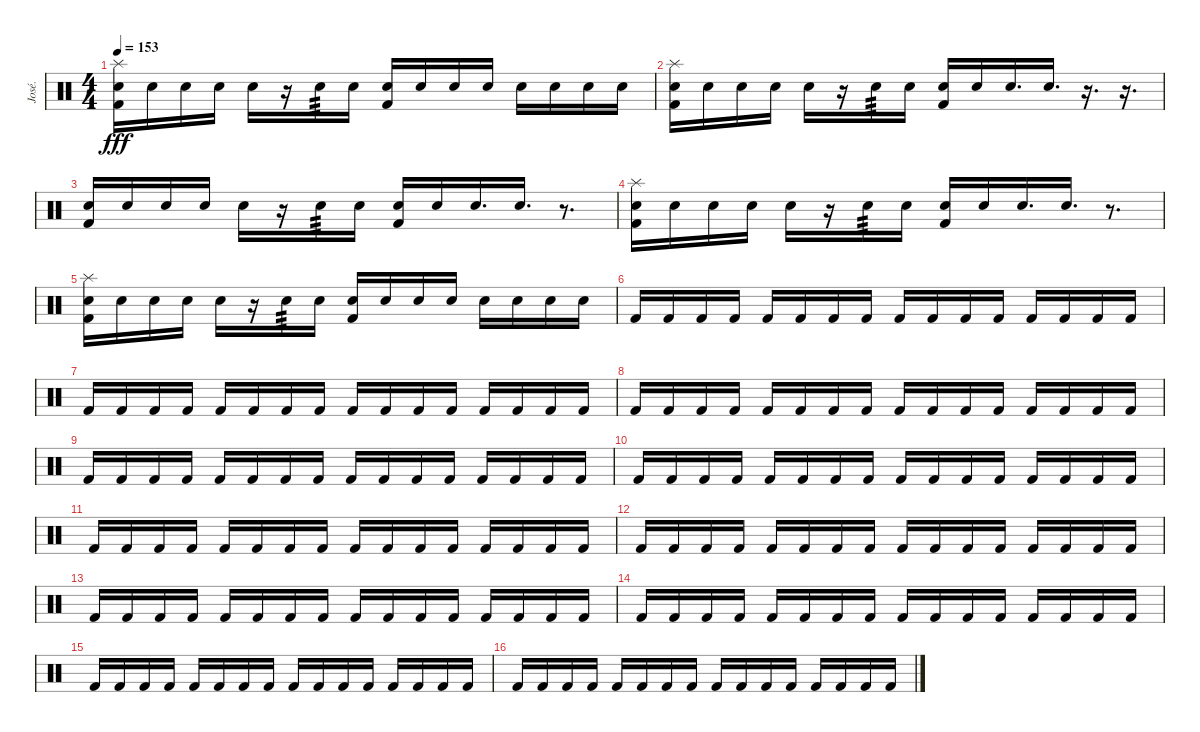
\track ("José." "José.") {instrument percussion}
\staff {score}
\articulation defaults
\ts (4 4)
\tempo 153
\clef neutral
\ks c
("Kick (hit) 2" "Snare (hit) 2" "Splash (hit)").16{dy fff} "Snare (hit) 2".16 "Snare (hit) 2".16 "Snare (hit) 2".16 "Snare (hit) 2".16 r.16 "Snare (hit) 2".16{tp 3} "Snare (hit) 2".16 ("Kick (hit) 2" "Snare (hit) 2").16 "Snare (hit) 2".16 "Snare (hit) 2".16 "Snare (hit) 2".16 "Snare (hit) 2".16 "Snare (hit) 2".16 "Snare (hit) 2".16 "Snare (hit) 2".16 |
("Kick (hit) 2" "Snare (hit) 2" "Splash (hit)").16 "Snare (hit) 2".16 "Snare (hit) 2".16 "Snare (hit) 2".16 "Snare (hit) 2".16 r.16 "Snare (hit) 2".16{tp 3} "Snare (hit) 2".16 ("Kick (hit) 2" "Snare (hit) 2").16 "Snare (hit) 2".16 "Snare (hit) 2".16{d} "Snare (hit) 2".16{d} r.16{d} r.16{d} |
("Kick (hit) 2" "Snare (hit) 2").16 "Snare (hit) 2".16 "Snare (hit) 2".16 "Snare (hit) 2".16 "Snare (hit) 2".16 r.16 "Snare (hit) 2".16{tp 3} "Snare (hit) 2".16 ("Kick (hit) 2" "Snare (hit) 2").16 "Snare (hit) 2".16 "Snare (hit) 2".16{d} "Snare (hit) 2".16{d} r.8{d} |
("Kick (hit) 2" "Snare (hit) 2" "Splash (hit)").16 "Snare (hit) 2".16 "Snare (hit) 2".16 "Snare (hit) 2".16 "Snare (hit) 2".16 r.16 "Snare (hit) 2".16{tp 3} "Snare (hit) 2".16 ("Kick (hit) 2" "Snare (hit) 2").16 "Snare (hit) 2".16 "Snare (hit) 2".16{d} "Snare (hit) 2".16{d} r.8{d} |
("Kick (hit) 2" "Snare (hit) 2" "Splash (hit)").16 "Snare (hit) 2".16 "Snare (hit) 2".16 "Snare (hit) 2".16 "Snare (hit) 2".16 r.16 "Snare (hit) 2".16{tp 3} "Snare (hit) 2".16 ("Kick (hit) 2" "Snare (hit) 2").16 "Snare (hit) 2".16 "Snare (hit) 2".16 "Snare (hit) 2".16 "Snare (hit) 2".16 "Snare (hit) 2".16 "Snare (hit) 2".16 "Snare (hit) 2".16 |
"Kick (hit) 2".16 "Kick (hit) 2".16 "Kick (hit) 2".16 "Kick (hit) 2".16 "Kick (hit) 2".16 "Kick (hit) 2".16 "Kick (hit) 2".16 "Kick (hit) 2".16 "Kick (hit) 2".16 "Kick (hit) 2".16 "Kick (hit) 2".16 "Kick (hit) 2".16 "Kick (hit) 2".16 "Kick (hit) 2".16 "Kick (hit) 2".16 "Kick (hit) 2".16 |
"Kick (hit) 2".16 "Kick (hit) 2".16 "Kick (hit) 2".16 "Kick (hit) 2".16 "Kick (hit) 2".16 "Kick (hit) 2".16 "Kick (hit) 2".16 "Kick (hit) 2".16 "Kick (hit) 2".16 "Kick (hit) 2".16 "Kick (hit) 2".16 "Kick (hit) 2".16 "Kick (hit) 2".16 "Kick (hit) 2".16 "Kick (hit) 2".16 "Kick (hit) 2".16 |
"Kick (hit) 2".16 "Kick (hit) 2".16 "Kick (hit) 2".16 "Kick (hit) 2".16 "Kick (hit) 2".16 "Kick (hit) 2".16 "Kick (hit) 2".16 "Kick (hit) 2".16 "Kick (hit) 2".16 "Kick (hit) 2".16 "Kick (hit) 2".16 "Kick (hit) 2".16 "Kick (hit) 2".16 "Kick (hit) 2".16 "Kick (hit) 2".16 "Kick (hit) 2".16 |
"Kick (hit) 2".16 "Kick (hit) 2".16 "Kick (hit) 2".16 "Kick (hit) 2".16 "Kick (hit) 2".16 "Kick (hit) 2".16 "Kick (hit) 2".16 "Kick (hit) 2".16 "Kick (hit) 2".16 "Kick (hit) 2".16 "Kick (hit) 2".16 "Kick (hit) 2".16 "Kick (hit) 2".16 "Kick (hit) 2".16 "Kick (hit) 2".16 "Kick (hit) 2".16 |
"Kick (hit) 2".16 "Kick (hit) 2".16 "Kick (hit) 2".16 "Kick (hit) 2".16 "Kick (hit) 2".16 "Kick (hit) 2".16 "Kick (hit) 2".16 "Kick (hit) 2".16 "Kick (hit) 2".16 "Kick (hit) 2".16 "Kick (hit) 2".16 "Kick (hit) 2".16 "Kick (hit) 2".16 "Kick (hit) 2".16 "Kick (hit) 2".16 "Kick (hit) 2".16 |
"Kick (hit) 2".16 "Kick (hit) 2".16 "Kick (hit) 2".16 "Kick (hit) 2".16 "Kick (hit) 2".16 "Kick (hit) 2".16 "Kick (hit) 2".16 "Kick (hit) 2".16 "Kick (hit) 2".16 "Kick (hit) 2".16 "Kick (hit) 2".16 "Kick (hit) 2".16 "Kick (hit) 2".16 "Kick (hit) 2".16 "Kick (hit) 2".16 "Kick (hit) 2".16 |
"Kick (hit) 2".16 "Kick (hit) 2".16 "Kick (hit) 2".16 "Kick (hit) 2".16 "Kick (hit) 2".16 "Kick (hit) 2".16 "Kick (hit) 2".16 "Kick (hit) 2".16 "Kick (hit) 2".16 "Kick (hit) 2".16 "Kick (hit) 2".16 "Kick (hit) 2".16 "Kick (hit) 2".16 "Kick (hit) 2".16 "Kick (hit) 2".16 "Kick (hit) 2".16 |
"Kick (hit) 2".16 "Kick (hit) 2".16 "Kick (hit) 2".16 "Kick (hit) 2".16 "Kick (hit) 2".16 "Kick (hit) 2".16 "Kick (hit) 2".16 "Kick (hit) 2".16 "Kick (hit) 2".16 "Kick (hit) 2".16 "Kick (hit) 2".16 "Kick (hit) 2".16 "Kick (hit) 2".16 "Kick (hit) 2".16 "Kick (hit) 2".16 "Kick (hit) 2".16 |
"Kick (hit) 2".16 "Kick (hit) 2".16 "Kick (hit) 2".16 "Kick (hit) 2".16 "Kick (hit) 2".16 "Kick (hit) 2".16 "Kick (hit) 2".16 "Kick (hit) 2".16 "Kick (hit) 2".16 "Kick (hit) 2".16 "Kick (hit) 2".16 "Kick (hit) 2".16 "Kick (hit) 2".16 "Kick (hit) 2".16 "Kick (hit) 2".16 "Kick (hit) 2".16 |
"Kick (hit) 2".16 "Kick (hit) 2".16 "Kick (hit) 2".16 "Kick (hit) 2".16 "Kick (hit) 2".16 "Kick (hit) 2".16 "Kick (hit) 2".16 "Kick (hit) 2".16 "Kick (hit) 2".16 "Kick (hit) 2".16 "Kick (hit) 2".16 "Kick (hit) 2".16 "Kick (hit) 2".16 "Kick (hit) 2".16 "Kick (hit) 2".16 "Kick (hit) 2".16 |
"Kick (hit) 2".16 "Kick (hit) 2".16 "Kick (hit) 2".16 "Kick (hit) 2".16 "Kick (hit) 2".16 "Kick (hit) 2".16 "Kick (hit) 2".16 "Kick (hit) 2".16 "Kick (hit) 2".16 "Kick (hit) 2".16 "Kick (hit) 2".16 "Kick (hit) 2".16 "Kick (hit) 2".16 "Kick (hit) 2".16 "Kick (hit) 2".16 "Kick (hit) 2".16
